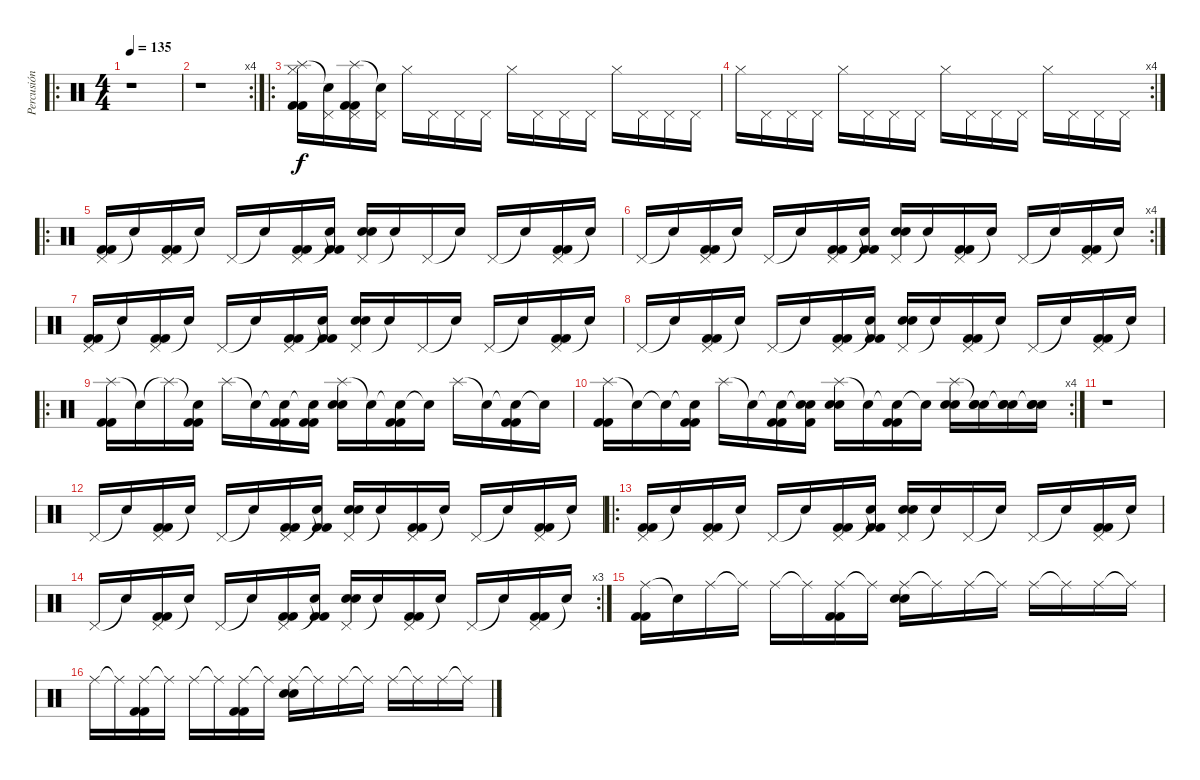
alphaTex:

\track ("Percusión" "Percusión") {instrument percussion}
\staff {score}
\articulation defaults
\ro
\ts (4 4)
\tempo 135
\clef neutral
\ks c
r.1{dy f} |
\rc 4
r.1 |
\ro
("Splash (hit)" "Hi-Hat (closed)" "Kick (hit) 2" "Kick (hit) 2").16 ("Snare (hit)"{t} "Pedal Hi-Hat (hit)").16 ("Splash (hit)" "Pedal Hi-Hat (hit)" "Kick (hit) 2" "Kick (hit) 2").16 ("Snare (hit)"{t} "Pedal Hi-Hat (hit)").16 "Hi-Hat (closed)".16 "Pedal Hi-Hat (hit)".16 "Pedal Hi-Hat (hit)".16 "Pedal Hi-Hat (hit)".16 "Hi-Hat (closed)".16 "Pedal Hi-Hat (hit)".16 "Pedal Hi-Hat (hit)".16 "Pedal Hi-Hat (hit)".16 "Hi-Hat (closed)".16 "Pedal Hi-Hat (hit)".16 "Pedal Hi-Hat (hit)".16 "Pedal Hi-Hat (hit)".16 |
\rc 4 "Hi-Hat (closed)".16 "Pedal Hi-Hat (hit)".16 "Pedal Hi-Hat (hit)".16 "Pedal Hi-Hat (hit)".16 "Hi-Hat (closed)".16 "Pedal Hi-Hat (hit)".16 "Pedal Hi-Hat (hit)".16 "Pedal Hi-Hat (hit)".16 "Hi-Hat (closed)".16 "Pedal Hi-Hat (hit)".16 "Pedal Hi-Hat (hit)".16 "Pedal Hi-Hat (hit)".16 "Hi-Hat (closed)".16 "Pedal Hi-Hat (hit)".16 "Pedal Hi-Hat (hit)".16 "Pedal Hi-Hat (hit)".16
|
\ro
("Pedal Hi-Hat (hit)" "Kick (hit) 2" "Kick (hit) 2").16 "Snare (hit)"{t}.16 ("Pedal Hi-Hat (hit)" "Kick (hit) 2" "Kick (hit) 2").16 "Snare (hit)"{t}.16 "Pedal Hi-Hat (hit)".16 "Snare (hit)"{t}.16 ("Pedal Hi-Hat (hit)" "Kick (hit) 2" "Kick (hit) 2").16 ("Snare (hit)"{t} "Kick (hit) 2" "Kick (hit) 2").16 ("Pedal Hi-Hat (hit)" "Electric Snare (hit)" "Electric Snare (hit)").16 "Snare (hit)"{t}.16 "Pedal Hi-Hat (hit)".16 "Snare (hit)"{t}.16 "Pedal Hi-Hat (hit)".16 "Snare (hit)"{t}.16 ("Pedal Hi-Hat (hit)" "Kick (hit) 2" "Kick (hit) 2").16 "Snare (hit)"{t}.16 |
\rc 4 "Pedal Hi-Hat (hit)".16 "Snare (hit)"{t}.16
("Pedal Hi-Hat (hit)" "Kick (hit) 2" "Kick (hit) 2").16 "Snare (hit)"{t}.16 "Pedal Hi-Hat (hit)".16 "Snare (hit)"{t}.16 ("Pedal Hi-Hat (hit)" "Kick (hit) 2" "Kick (hit) 2").16 ("Snare (hit)"{t} "Kick (hit) 2" "Kick (hit) 2").16 ("Pedal Hi-Hat (hit)" "Electric Snare (hit)" "Electric Snare (hit)").16 "Snare (hit)"{t}.16 ("Pedal Hi-Hat (hit)" "Kick (hit) 2" "Kick (hit) 2").16 "Snare (hit)"{t}.16 "Pedal Hi-Hat (hit)".16 "Snare (hit)"{t}.16 ("Pedal Hi-Hat (hit)" "Kick (hit) 2" "Kick (hit) 2").16 "Snare (hit)"{t}.16 |
("Pedal Hi-Hat (hit)" "Kick (hit) 2" "Kick (hit) 2").16 "Snare (hit)"{t}.16 ("Pedal Hi-Hat (hit)" "Kick (hit) 2" "Kick (hit) 2").16 "Snare (hit)"{t}.16 "Pedal Hi-Hat (hit)".16 "Snare (hit)"{t}.16 ("Pedal Hi-Hat (hit)" "Kick (hit) 2" "Kick (hit) 2").16 ("Snare (hit)"{t} "Kick (hit) 2" "Kick (hit) 2").16 ("Pedal Hi-Hat (hit)" "Electric Snare (hit)" "Electric Snare (hit)").16 "Snare (hit)"{t}.16 "Pedal Hi-Hat (hit)".16 "Snare (hit)"{t}.16 "Pedal Hi-Hat (hit)".16 "Snare (hit)"{t}.16 ("Pedal Hi-Hat (hit)" "Kick (hit) 2" "Kick (hit) 2").16 "Snare (hit)"{t}.16 |
"Pedal Hi-Hat (hit)".16 "Snare (hit)"{t}.16 ("Pedal Hi-Hat (hit)" "Kick (hit) 2" "Kick (hit) 2").16 "Snare (hit)"{t}.16 "Pedal Hi-Hat (hit)".16 "Snare (hit)"{t}.16 ("Pedal Hi-Hat (hit)" "Kick (hit) 2" "Kick (hit) 2").16 ("Snare (hit)"{t} "Kick (hit) 2" "Kick (hit) 2").16 ("Pedal Hi-Hat (hit)" "Electric Snare (hit)" "Electric Snare (hit)").16 "Snare (hit)"{t}.16 ("Pedal Hi-Hat (hit)" "Kick (hit) 2" "Kick (hit) 2").16 "Snare (hit)"{t}.16 "Pedal Hi-Hat (hit)".16 "Snare (hit)"{t}.16 ("Pedal Hi-Hat (hit)" "Kick (hit) 2" "Kick (hit) 2").16 "Snare (hit)"{t}.16 |
\ro
("Splash (hit)" "Kick (hit) 2" "Kick (hit) 2").16 "Snare (hit)"{t}.16 "Splash (hit)"{t}.16 ("Snare (hit)"{t} "Kick (hit) 2" "Kick (hit) 2").16 "Splash (hit)".16 "Snare (hit)"{t}.16 ("Snare (hit)"{t} "Kick (hit) 2" "Kick (hit) 2").16 ("Snare (hit)"{t} "Kick (hit) 2" "Kick (hit) 2").16 ("Splash (hit)" "Electric Snare (hit)" "Electric Snare (hit)").16 "Snare (hit)"{t}.16 ("Snare (hit)"{t} "Kick (hit) 2" "Kick (hit) 2").16 "Snare (hit)"{t}.16 "Splash (hit)".16 "Snare (hit)"{t}.16 ("Snare (hit)"{t} "Kick (hit) 2" "Kick (hit) 2").16 "Snare (hit)"{t}.16 |
\rc 4
("Splash (hit)" "Kick (hit) 2" "Kick (hit) 2").16 "Snare (hit)"{t}.16 "Snare (hit)"{t}.16 ("Snare (hit)"{t} "Kick (hit) 2" "Kick (hit) 2").16 "Splash (hit)".16 "Snare (hit)"{t}.16 ("Snare (hit)"{t} "Kick (hit) 2" "Kick (hit) 2").16 ("Snare (hit)"{t} "Snare (hit)" "Kick (hit) 2").16 ("Splash (hit)" "Electric Snare (hit)" "Electric Snare (hit)").16 "Snare (hit)"{t}.16 ("Snare (hit)"{t} "Kick (hit) 2" "Kick (hit) 2").16 "Snare (hit)"{t}.16 ("Splash (hit)" "Electric Snare (hit)" "Electric Snare (hit)").16 ("Snare (hit)"{t} "Electric Snare (hit)" "Electric Snare (hit)").16 ("Snare (hit)"{t} "Electric Snare (hit)" "Electric Snare (hit)").16 ("Snare (hit)"{t} "Electric Snare (hit)" "Electric Snare (hit)").16 |
r.1 |
"Pedal Hi-Hat (hit)".16 "Snare (hit)"{t}.16 ("Pedal Hi-Hat (hit)" "Kick (hit) 2" "Kick (hit) 2").16 "Snare (hit)"{t}.16 "Pedal Hi-Hat (hit)".16 "Snare (hit)"{t}.16 ("Pedal Hi-Hat (hit)" "Kick (hit) 2" "Kick (hit) 2").16 ("Snare (hit)"{t} "Kick (hit) 2" "Kick (hit) 2").16 ("Pedal Hi-Hat (hit)" "Electric Snare (hit)" "Electric Snare (hit)").16 "Snare (hit)"{t}.16 ("Pedal Hi-Hat (hit)" "Kick (hit) 2" "Kick (hit) 2").16 "Snare (hit)"{t}.16 "Pedal Hi-Hat (hit)".16 "Snare (hit)"{t}.16 ("Pedal Hi-Hat (hit)" "Kick (hit) 2" "Kick (hit) 2").16 "Snare (hit)"{t}.16 |
\ro
("Pedal Hi-Hat (hit)" "Kick (hit) 2" "Kick (hit) 2").16 "Snare (hit)"{t}.16 ("Pedal Hi-Hat (hit)" "Kick (hit) 2" "Kick (hit) 2").16 "Snare (hit)"{t}.16 "Pedal Hi-Hat (hit)".16 "Snare (hit)"{t}.16 ("Pedal Hi-Hat (hit)" "Kick (hit) 2" "Kick (hit) 2").16 ("Snare (hit)"{t} "Kick (hit) 2" "Kick (hit) 2").16 ("Pedal Hi-Hat (hit)" "Electric Snare (hit)" "Electric Snare (hit)").16 "Snare (hit)"{t}.16 "Pedal Hi-Hat (hit)".16 "Snare (hit)"{t}.16 "Pedal Hi-Hat (hit)".16 "Snare (hit)"{t}.16 ("Pedal Hi-Hat (hit)" "Kick (hit) 2" "Kick (hit) 2").16 "Snare (hit)"{t}.16 |
\rc 3 "Pedal Hi-Hat (hit)".16 "Snare (hit)"{t}.16
("Pedal Hi-Hat (hit)" "Kick (hit) 2" "Kick (hit) 2").16 "Snare (hit)"{t}.16 "Pedal Hi-Hat (hit)".16 "Snare (hit)"{t}.16 ("Pedal Hi-Hat (hit)" "Kick (hit) 2" "Kick (hit) 2").16 ("Snare (hit)"{t} "Kick (hit) 2" "Kick (hit) 2").16 ("Pedal Hi-Hat (hit)" "Electric Snare (hit)" "Electric Snare (hit)").16 "Snare (hit)"{t}.16 ("Pedal Hi-Hat (hit)" "Kick (hit) 2" "Kick (hit) 2").16 "Snare (hit)"{t}.16 "Pedal Hi-Hat (hit)".16 "Snare (hit)"{t}.16 ("Pedal Hi-Hat (hit)" "Kick (hit) 2" "Kick (hit) 2").16 "Snare (hit)"{t}.16 |
("Ride (middle)" "Kick (hit) 2" "Kick (hit) 2").16 "Snare (hit)"{t}.16 "Ride (middle)".16 "Ride (middle)"{t}.16 "Ride (middle)".16 "Ride (middle)"{t}.16 ("Ride (middle)" "Kick (hit) 2" "Kick (hit) 2").16 "Ride (middle)"{t}.16 ("Ride (middle)" "Electric Snare (hit)" "Electric Snare (hit)").16 "Ride (middle)"{t}.16 "Ride (middle)".16 "Ride (middle)"{t}.16 "Ride (middle)".16 "Ride (middle)"{t}.16 "Ride (middle)".16 "Ride (middle)"{t}.16 |
"Ride (middle)".16 "Ride (middle)"{t}.16 ("Ride (middle)" "Kick (hit) 2" "Kick (hit) 2").16 "Ride (middle)"{t}.16 "Ride (middle)".16 "Ride (middle)"{t}.16 ("Ride (middle)" "Kick (hit) 2" "Kick (hit) 2").16 "Ride (middle)"{t}.16 ("Ride (middle)" "Electric Snare (hit)" "Electric Snare (hit)").16 "Ride (middle)"{t}.16 "Ride (middle)".16 "Ride (middle)"{t}.16 "Ride (middle)".16 "Ride (middle)"{t}.16 "Ride (middle)".16 "Ride (middle)"{t}.16
